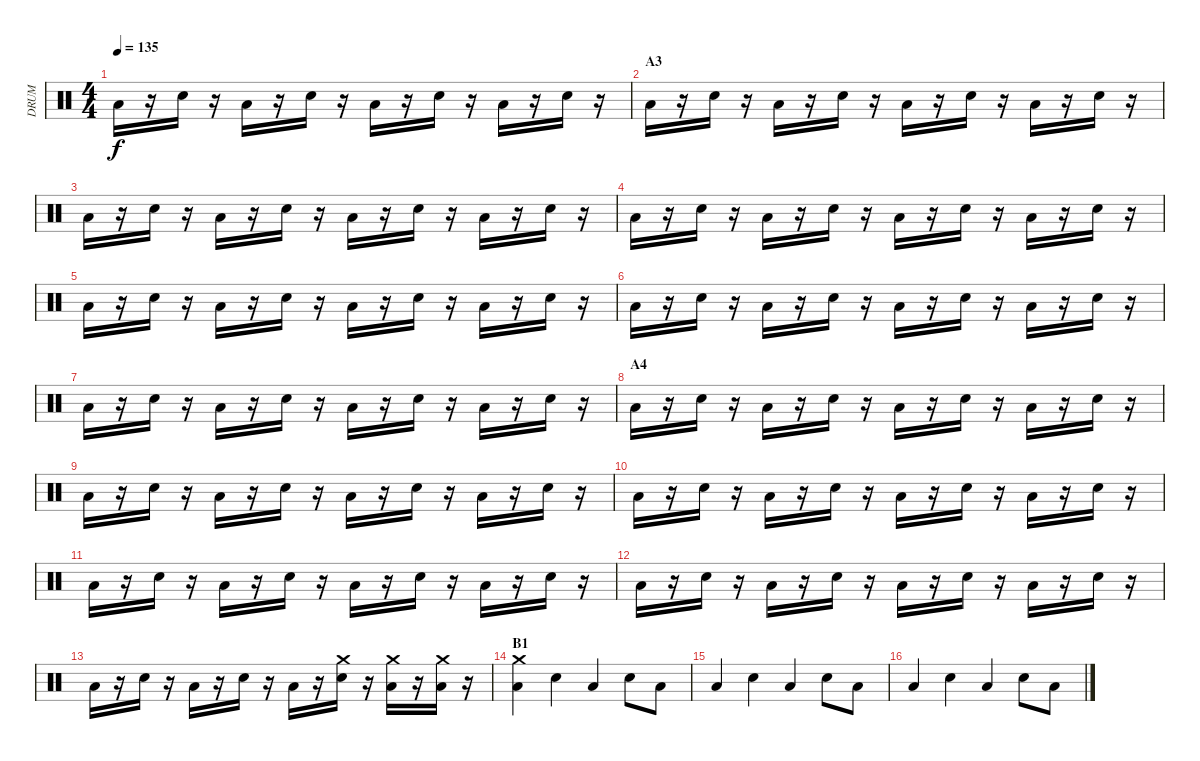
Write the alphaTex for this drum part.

\track ("DRUM" "DRUM") {instrument percussion}
\staff {score}
\articulation defaults
\ts (4 4)
\tempo 135
\clef neutral
\ks c "Low Floor Tom (hit)".16{dy f}
r.16 "Electric Snare (hit)".16 r.16 "Low Floor Tom (hit)".16 r.16 "Electric Snare (hit)".16 r.16 "Low Floor Tom (hit)".16 r.16 "Electric Snare (hit)".16 r.16 "Low Floor Tom (hit)".16 r.16 "Electric Snare (hit)".16 r.16 |
\section ("" "A3")
"Low Floor Tom (hit)".16 r.16 "Electric Snare (hit)".16 r.16 "Low Floor Tom (hit)".16 r.16 "Electric Snare (hit)".16 r.16 "Low Floor Tom (hit)".16 r.16 "Electric Snare (hit)".16 r.16 "Low Floor Tom (hit)".16 r.16 "Electric Snare (hit)".16 r.16 |
"Low Floor Tom (hit)".16 r.16 "Electric Snare (hit)".16 r.16 "Low Floor Tom (hit)".16 r.16 "Electric Snare (hit)".16 r.16 "Low Floor Tom (hit)".16 r.16 "Electric Snare (hit)".16 r.16 "Low Floor Tom (hit)".16 r.16 "Electric Snare (hit)".16 r.16 |
"Low Floor Tom (hit)".16 r.16 "Electric Snare (hit)".16 r.16 "Low Floor Tom (hit)".16 r.16 "Electric Snare (hit)".16 r.16 "Low Floor Tom (hit)".16 r.16 "Electric Snare (hit)".16 r.16 "Low Floor Tom (hit)".16 r.16 "Electric Snare (hit)".16 r.16 |
"Low Floor Tom (hit)".16 r.16 "Electric Snare (hit)".16 r.16 "Low Floor Tom (hit)".16 r.16 "Electric Snare (hit)".16 r.16 "Low Floor Tom (hit)".16 r.16 "Electric Snare (hit)".16 r.16 "Low Floor Tom (hit)".16 r.16 "Electric Snare (hit)".16 r.16 |
"Low Floor Tom (hit)".16 r.16 "Electric Snare (hit)".16 r.16 "Low Floor Tom (hit)".16 r.16 "Electric Snare (hit)".16 r.16 "Low Floor Tom (hit)".16 r.16 "Electric Snare (hit)".16 r.16 "Low Floor Tom (hit)".16 r.16 "Electric Snare (hit)".16 r.16 |
"Low Floor Tom (hit)".16 r.16 "Electric Snare (hit)".16 r.16 "Low Floor Tom (hit)".16 r.16 "Electric Snare (hit)".16 r.16 "Low Floor Tom (hit)".16 r.16 "Electric Snare (hit)".16 r.16 "Low Floor Tom (hit)".16 r.16 "Electric Snare (hit)".16 r.16 |
\section ("" "A4")
"Low Floor Tom (hit)".16 r.16 "Electric Snare (hit)".16 r.16 "Low Floor Tom (hit)".16 r.16 "Electric Snare (hit)".16 r.16 "Low Floor Tom (hit)".16 r.16 "Electric Snare (hit)".16 r.16 "Low Floor Tom (hit)".16 r.16 "Electric Snare (hit)".16 r.16 |
"Low Floor Tom (hit)".16 r.16 "Electric Snare (hit)".16 r.16 "Low Floor Tom (hit)".16 r.16 "Electric Snare (hit)".16 r.16 "Low Floor Tom (hit)".16 r.16 "Electric Snare (hit)".16 r.16 "Low Floor Tom (hit)".16 r.16 "Electric Snare (hit)".16 r.16 |
"Low Floor Tom (hit)".16 r.16 "Electric Snare (hit)".16 r.16 "Low Floor Tom (hit)".16 r.16 "Electric Snare (hit)".16 r.16 "Low Floor Tom (hit)".16 r.16 "Electric Snare (hit)".16 r.16 "Low Floor Tom (hit)".16 r.16 "Electric Snare (hit)".16 r.16 |
"Low Floor Tom (hit)".16 r.16 "Electric Snare (hit)".16 r.16 "Low Floor Tom (hit)".16 r.16 "Electric Snare (hit)".16 r.16 "Low Floor Tom (hit)".16 r.16 "Electric Snare (hit)".16 r.16 "Low Floor Tom (hit)".16 r.16 "Electric Snare (hit)".16 r.16 |
"Low Floor Tom (hit)".16 r.16 "Electric Snare (hit)".16 r.16 "Low Floor Tom (hit)".16 r.16 "Electric Snare (hit)".16 r.16 "Low Floor Tom (hit)".16 r.16 "Electric Snare (hit)".16 r.16 "Low Floor Tom (hit)".16 r.16 "Electric Snare (hit)".16 r.16 |
"Low Floor Tom (hit)".16 r.16 "Electric Snare (hit)".16 r.16 "Low Floor Tom (hit)".16 r.16 "Electric Snare (hit)".16 r.16 "Low Floor Tom (hit)".16 r.16 ("Electric Snare (hit)" "Crash medium (hit)").16 r.16 ("Low Floor Tom (hit)" "Crash medium (hit)").16 r.16 ("Low Floor Tom (hit)" "Crash medium (hit)").16 r.16 |
\section ("" "B1")
("Low Floor Tom (hit)" "Crash medium (hit)").4 "Electric Snare (hit)".4 "Low Floor Tom (hit)".4 "Electric Snare (hit)".8 "Low Floor Tom (hit)".8 |
"Low Floor Tom (hit)".4 "Electric Snare (hit)".4 "Low Floor Tom (hit)".4 "Electric Snare (hit)".8 "Low Floor Tom (hit)".8 |
"Low Floor Tom (hit)".4 "Electric Snare (hit)".4 "Low Floor Tom (hit)".4 "Electric Snare (hit)".8 "Low Floor Tom (hit)".8
